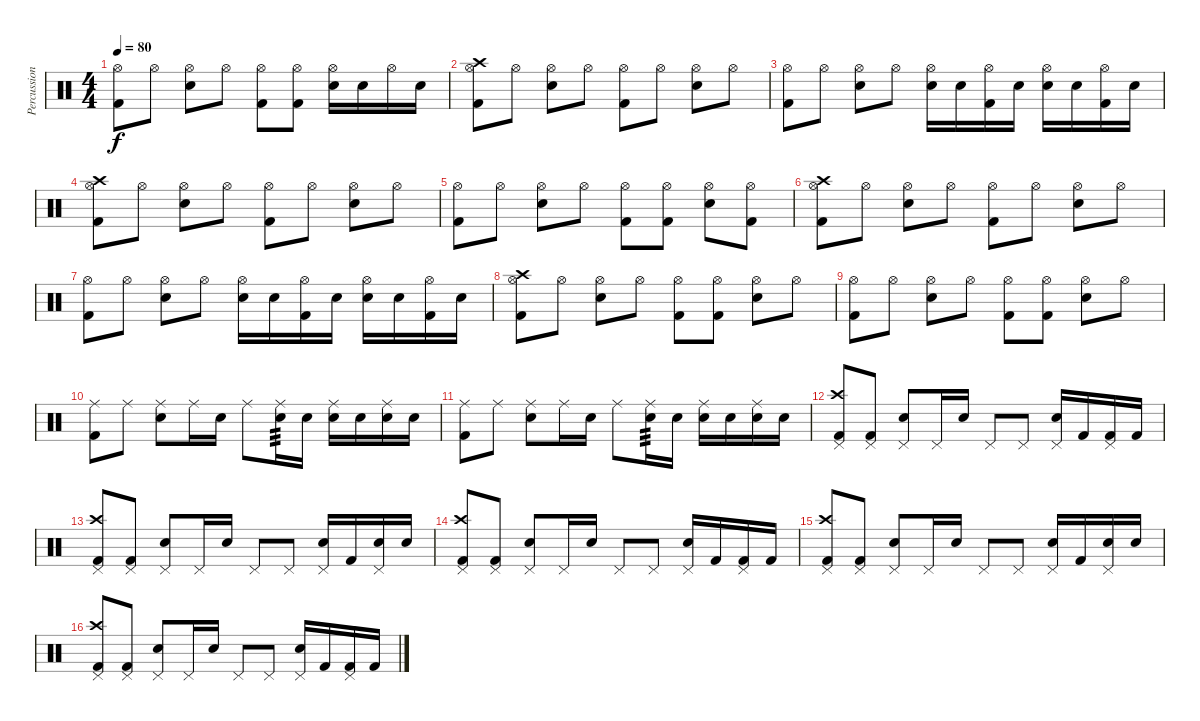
\track ("Percussion" "Percussion") {instrument percussion}
\staff {score}
\articulation defaults
\ts (4 4)
\tempo 80
\clef neutral
\ks c
("Kick (hit) 2" "Hi-Hat (open)").8{dy f} "Hi-Hat (open)".8 ("Snare (hit) 2" "Hi-Hat (open)").8 "Hi-Hat (open)".8 ("Kick (hit) 2" "Hi-Hat (open)").8 ("Kick (hit) 2" "Hi-Hat (open)").8 ("Snare (hit) 2" "Hi-Hat (open)").16 "Snare (hit) 2".16 "Hi-Hat (open)".16 "Snare (hit) 2".16 |
("Kick (hit) 2" "Hi-Hat (open)" "Crash high (hit)").8 "Hi-Hat (open)".8 ("Snare (hit) 2" "Hi-Hat (open)").8 "Hi-Hat (open)".8 ("Kick (hit) 2" "Hi-Hat (open)").8 "Hi-Hat (open)".8 ("Snare (hit) 2" "Hi-Hat (open)").8 "Hi-Hat (open)".8 |
("Kick (hit) 2" "Hi-Hat (open)").8 "Hi-Hat (open)".8 ("Snare (hit) 2" "Hi-Hat (open)").8 "Hi-Hat (open)".8 ("Snare (hit) 2" "Hi-Hat (open)").16 "Snare (hit) 2".16 ("Kick (hit) 2" "Hi-Hat (open)").16 "Snare (hit) 2".16 ("Snare (hit) 2" "Hi-Hat (open)").16 "Snare (hit) 2".16 ("Kick (hit) 2" "Hi-Hat (open)").16 "Snare (hit) 2".16 |
("Kick (hit) 2" "Hi-Hat (open)" "Crash high (hit)").8 "Hi-Hat (open)".8 ("Snare (hit) 2" "Hi-Hat (open)").8 "Hi-Hat (open)".8 ("Kick (hit) 2" "Hi-Hat (open)").8 "Hi-Hat (open)".8 ("Snare (hit) 2" "Hi-Hat (open)").8 "Hi-Hat (open)".8 |
("Kick (hit) 2" "Hi-Hat (open)").8 "Hi-Hat (open)".8 ("Snare (hit) 2" "Hi-Hat (open)").8 "Hi-Hat (open)".8 ("Kick (hit) 2" "Hi-Hat (open)").8 ("Kick (hit) 2" "Hi-Hat (open)").8 ("Snare (hit) 2" "Hi-Hat (open)").8 ("Kick (hit) 2" "Hi-Hat (open)").8 |
("Kick (hit) 2" "Hi-Hat (open)" "Crash high (hit)").8 "Hi-Hat (open)".8 ("Snare (hit) 2" "Hi-Hat (open)").8 "Hi-Hat (open)".8 ("Kick (hit) 2" "Hi-Hat (open)").8 "Hi-Hat (open)".8 ("Snare (hit) 2" "Hi-Hat (open)").8 "Hi-Hat (open)".8 |
("Kick (hit) 2" "Hi-Hat (open)").8 "Hi-Hat (open)".8 ("Snare (hit) 2" "Hi-Hat (open)").8 "Hi-Hat (open)".8 ("Snare (hit) 2" "Hi-Hat (open)").16 "Snare (hit) 2".16 ("Kick (hit) 2" "Hi-Hat (open)").16 "Snare (hit) 2".16 ("Snare (hit) 2" "Hi-Hat (open)").16 "Snare (hit) 2".16 ("Kick (hit) 2" "Hi-Hat (open)").16 "Snare (hit) 2".16 |
("Kick (hit) 2" "Hi-Hat (open)" "Crash high (hit)").8 "Hi-Hat (open)".8 ("Snare (hit) 2" "Hi-Hat (open)").8 "Hi-Hat (open)".8 ("Kick (hit) 2" "Hi-Hat (open)").8 ("Kick (hit) 2" "Hi-Hat (open)").8 ("Snare (hit) 2" "Hi-Hat (open)").8 "Hi-Hat (open)".8 |
("Kick (hit) 2" "Hi-Hat (open)").8 "Hi-Hat (open)".8 ("Snare (hit) 2" "Hi-Hat (open)").8 "Hi-Hat (open)".8 ("Kick (hit) 2" "Hi-Hat (open)").8 ("Kick (hit) 2" "Hi-Hat (open)").8 ("Snare (hit) 2" "Hi-Hat (open)").8 "Hi-Hat (open)".8 |
("Kick (hit) 2" "Ride (middle)").8 "Ride (middle)".8 ("Snare (hit) 2" "Ride (middle)").8 "Ride (middle)".16 "Snare (hit) 2".16 "Ride (middle)".8 ("Snare (hit) 2" "Ride (middle)").16{tp 3} "Snare (hit) 2".16 ("Snare (hit) 2" "Ride (middle)").16 "Snare (hit) 2".16 ("Snare (hit) 2" "Ride (middle)").16 "Snare (hit) 2".16 |
("Kick (hit) 2" "Ride (middle)").8 "Ride (middle)".8 ("Snare (hit) 2" "Ride (middle)").8 "Ride (middle)".16 "Snare (hit) 2".16 "Ride (middle)".8 ("Snare (hit) 2" "Ride (middle)").16{tp 3} "Snare (hit) 2".16 ("Snare (hit) 2" "Ride (middle)").16 "Snare (hit) 2".16 ("Snare (hit) 2" "Ride (middle)").16 "Snare (hit) 2".16 |
("Kick (hit) 2" "Pedal Hi-Hat (hit)" "Crash high (hit)").8 ("Kick (hit) 2" "Pedal Hi-Hat (hit)").8 ("Snare (hit) 2" "Pedal Hi-Hat (hit)").8 "Pedal Hi-Hat (hit)".16 "Snare (hit) 2".16 "Pedal Hi-Hat (hit)".8 "Pedal Hi-Hat (hit)".8 ("Snare (hit) 2" "Pedal Hi-Hat (hit)").16 "Kick (hit) 2".16 ("Kick (hit) 2" "Pedal Hi-Hat (hit)").16 "Kick (hit) 2".16 |
("Kick (hit) 2" "Pedal Hi-Hat (hit)" "Crash high (hit)").8 ("Kick (hit) 2" "Pedal Hi-Hat (hit)").8 ("Snare (hit) 2" "Pedal Hi-Hat (hit)").8 "Pedal Hi-Hat (hit)".16 "Snare (hit) 2".16 "Pedal Hi-Hat (hit)".8 "Pedal Hi-Hat (hit)".8 ("Snare (hit) 2" "Pedal Hi-Hat (hit)").16 "Kick (hit) 2".16 ("Snare (hit) 2" "Pedal Hi-Hat (hit)").16 "Snare (hit) 2".16 |
("Kick (hit) 2" "Pedal Hi-Hat (hit)" "Crash high (hit)").8 ("Kick (hit) 2" "Pedal Hi-Hat (hit)").8 ("Snare (hit) 2" "Pedal Hi-Hat (hit)").8 "Pedal Hi-Hat (hit)".16 "Snare (hit) 2".16 "Pedal Hi-Hat (hit)".8 "Pedal Hi-Hat (hit)".8 ("Snare (hit) 2" "Pedal Hi-Hat (hit)").16 "Kick (hit) 2".16 ("Kick (hit) 2" "Pedal Hi-Hat (hit)").16 "Kick (hit) 2".16 |
("Kick (hit) 2" "Pedal Hi-Hat (hit)" "Crash high (hit)").8 ("Kick (hit) 2" "Pedal Hi-Hat (hit)").8 ("Snare (hit) 2" "Pedal Hi-Hat (hit)").8 "Pedal Hi-Hat (hit)".16 "Snare (hit) 2".16 "Pedal Hi-Hat (hit)".8 "Pedal Hi-Hat (hit)".8 ("Snare (hit) 2" "Pedal Hi-Hat (hit)").16 "Kick (hit) 2".16 ("Snare (hit) 2" "Pedal Hi-Hat (hit)").16 "Snare (hit) 2".16 |
("Kick (hit) 2" "Pedal Hi-Hat (hit)" "Crash high (hit)").8 ("Kick (hit) 2" "Pedal Hi-Hat (hit)").8 ("Snare (hit) 2" "Pedal Hi-Hat (hit)").8 "Pedal Hi-Hat (hit)".16 "Snare (hit) 2".16 "Pedal Hi-Hat (hit)".8 "Pedal Hi-Hat (hit)".8 ("Snare (hit) 2" "Pedal Hi-Hat (hit)").16 "Kick (hit) 2".16 ("Kick (hit) 2" "Pedal Hi-Hat (hit)").16 "Kick (hit) 2".16
